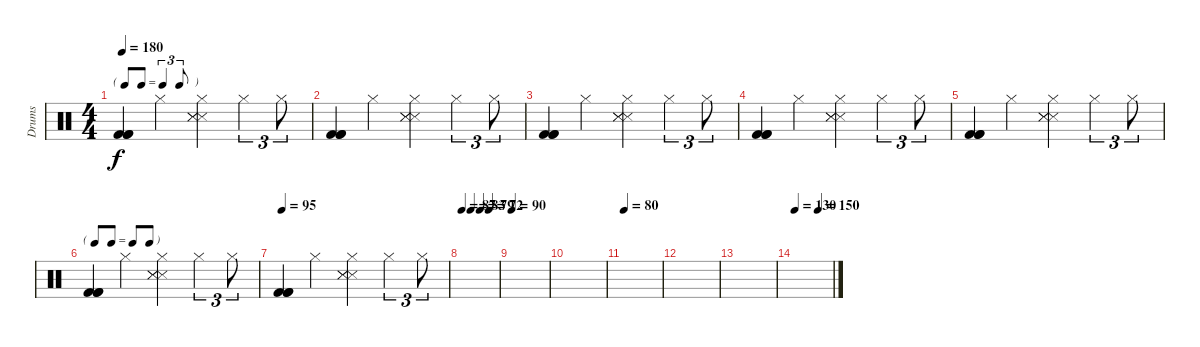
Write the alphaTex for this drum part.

\track ("Drums" "Drums") {instrument percussion}
\staff {score}
\articulation defaults
\ts (4 4)
\tf triplet8th
\tempo 180
\clef neutral
\ks c
("Kick (hit) 2" "Kick (hit) 2" "Kick (hit) 2").4{dy f} "Hi-Hat (closed)".4 ("Snare (side stick) 3" "Snare (side stick) 3" "Snare (side stick) 3" "Hi-Hat (closed)").4 "Hi-Hat (closed)".4{tu (3 2)} "Hi-Hat (closed)".8{tu (3 2)} |
("Kick (hit) 2" "Kick (hit) 2" "Kick (hit) 2").4 "Hi-Hat (closed)".4 ("Snare (side stick) 3" "Snare (side stick) 3" "Snare (side stick) 3" "Hi-Hat (closed)").4 "Hi-Hat (closed)".4{tu (3 2)} "Hi-Hat (closed)".8{tu (3 2)} |
("Kick (hit) 2" "Kick (hit) 2" "Kick (hit) 2").4 "Hi-Hat (closed)".4 ("Snare (side stick) 3" "Snare (side stick) 3" "Snare (side stick) 3" "Hi-Hat (closed)").4 "Hi-Hat (closed)".4{tu (3 2)} "Hi-Hat (closed)".8{tu (3 2)} |
("Kick (hit) 2" "Kick (hit) 2" "Kick (hit) 2").4 "Hi-Hat (closed)".4 ("Snare (side stick) 3" "Snare (side stick) 3" "Snare (side stick) 3" "Hi-Hat (closed)").4 "Hi-Hat (closed)".4{tu (3 2)} "Hi-Hat (closed)".8{tu (3 2)} |
("Kick (hit) 2" "Kick (hit) 2" "Kick (hit) 2").4 "Hi-Hat (closed)".4 ("Snare (side stick) 3" "Snare (side stick) 3" "Snare (side stick) 3" "Hi-Hat (closed)").4 "Hi-Hat (closed)".4{tu (3 2)} "Hi-Hat (closed)".8{tu (3 2)} |
\tf none
("Kick (hit) 2" "Kick (hit) 2" "Kick (hit) 2").4 "Hi-Hat (closed)".4 ("Snare (side stick) 3" "Snare (side stick) 3" "Snare (side stick) 3" "Hi-Hat (closed)").4 "Hi-Hat (closed)".4{tu (3 2)} "Hi-Hat (closed)".8{tu (3 2)} |
\tempo 95
("Kick (hit) 2" "Kick (hit) 2" "Kick (hit) 2").4 "Hi-Hat (closed)".4 ("Snare (side stick) 3" "Snare (side stick) 3" "Snare (side stick) 3" "Hi-Hat (closed)").4 "Hi-Hat (closed)".4{tu (3 2)} "Hi-Hat (closed)".8{tu (3 2)} |
\tempo 87
\tempo (83 0.25)
\tempo (79 0.5)
\tempo (72 0.75)
|
\tempo 90
|
|
\tempo 80
|
|
|
\tempo 130
\tempo (150 0.625)
